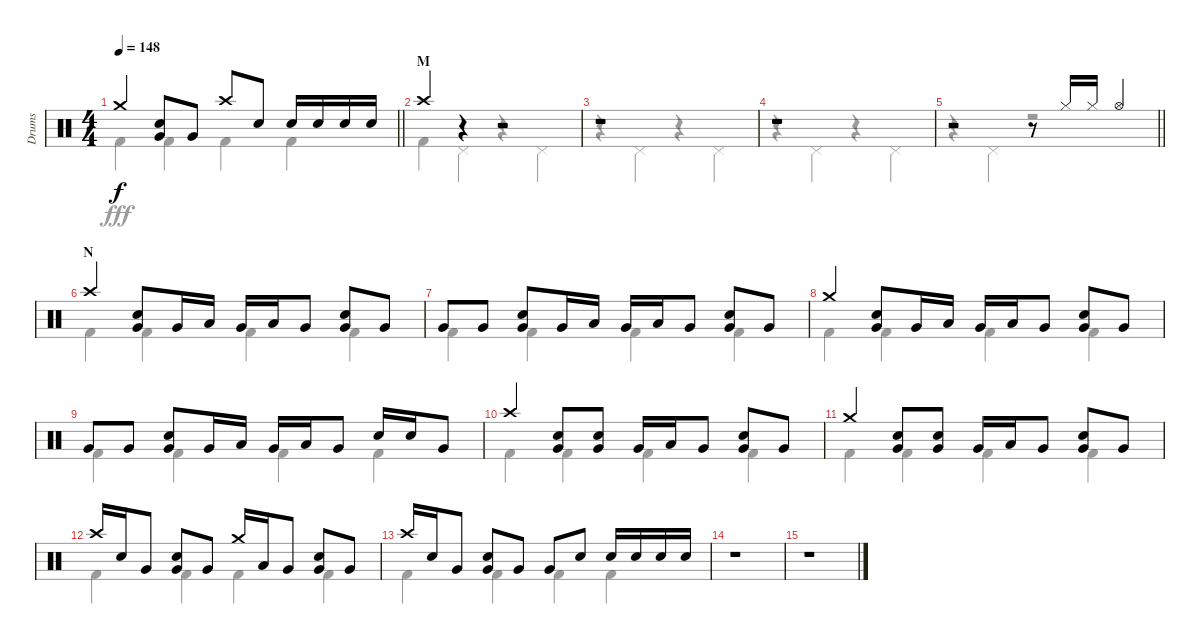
\track ("Drums" "Drums") {instrument percussion}
\staff {score}
\articulation defaults
\voice
\ts (4 4)
\tempo 148
\clef neutral
\barLineRight lightlight
\ks c "Crash medium (hit)".4{dy f}
("Snare (hit) 2" "Very Low Tom (hit)").8 "Very Low Tom (hit)".8 "Crash high (hit)".8 "Snare (hit) 2".8 "Snare (hit) 2".16 "Snare (hit) 2".16 "Snare (hit) 2".16 "Snare (hit) 2".16 |
\section ("" "M")
"Crash high (hit)".4 r.4 r.2 |
r.1 |
r.1 |
\barLineRight lightlight
r.2 r.8 "Hi-Hat (closed)".16 "Hi-Hat (closed)".16 "Hi-Hat (open)".4 |
\section ("" "N")
"Crash high (hit)".4 ("Snare (hit) 2" "Very Low Tom (hit)").8 "Very Low Tom (hit)".16 "Low Tom (hit)".16 "Very Low Tom (hit)".16 "Low Tom (hit)".16 "Very Low Tom (hit)".8 ("Snare (hit) 2" "Very Low Tom (hit)").8 "Very Low Tom (hit)".8 |
"Very Low Tom (hit)".8 "Very Low Tom (hit)".8 ("Snare (hit) 2" "Very Low Tom (hit)").8 "Very Low Tom (hit)".16 "Low Tom (hit)".16 "Very Low Tom (hit)".16 "Low Tom (hit)".16 "Very Low Tom (hit)".8 ("Snare (hit) 2" "Very Low Tom (hit)").8 "Very Low Tom (hit)".8 |
"Crash medium (hit)".4 ("Snare (hit) 2" "Very Low Tom (hit)").8 "Very Low Tom (hit)".16 "Low Tom (hit)".16 "Very Low Tom (hit)".16 "Low Tom (hit)".16 "Very Low Tom (hit)".8 ("Snare (hit) 2" "Very Low Tom (hit)").8 "Very Low Tom (hit)".8 |
"Very Low Tom (hit)".8 "Very Low Tom (hit)".8 ("Snare (hit) 2" "Very Low Tom (hit)").8 "Very Low Tom (hit)".16 "Low Tom (hit)".16 "Very Low Tom (hit)".16 "Low Tom (hit)".16 "Very Low Tom (hit)".8 "Snare (hit) 2".16 "Snare (hit) 2".16 "Very Low Tom (hit)".8 |
"Crash high (hit)".4 ("Snare (hit) 2" "Very Low Tom (hit)").8 ("Snare (hit) 2" "Very Low Tom (hit)").8 "Very Low Tom (hit)".16 "Low Tom (hit)".16 "Very Low Tom (hit)".8 ("Snare (hit) 2" "Very Low Tom (hit)").8 "Very Low Tom (hit)".8 |
"Crash medium (hit)".4 ("Snare (hit) 2" "Very Low Tom (hit)").8 ("Snare (hit) 2" "Very Low Tom (hit)").8 "Very Low Tom (hit)".16 "Low Tom (hit)".16 "Very Low Tom (hit)".8 ("Snare (hit) 2" "Very Low Tom (hit)").8 "Very Low Tom (hit)".8 |
"Crash high (hit)".16 "Snare (hit) 2".16 "Very Low Tom (hit)".8 ("Snare (hit) 2" "Very Low Tom (hit)").8 "Very Low Tom (hit)".8 "Crash medium (hit)".16 "Low Tom (hit)".16 "Very Low Tom (hit)".8 ("Snare (hit) 2" "Very Low Tom (hit)").8 "Very Low Tom (hit)".8 |
"Crash high (hit)".16 "Snare (hit) 2".16 "Very Low Tom (hit)".8 ("Snare (hit)" "Very Low Tom (hit)").8 "Very Low Tom (hit)".8 "Very Low Tom (hit)".8 "Snare (hit) 2".8 "Snare (hit) 2".16 "Snare (hit) 2".16 "Snare (hit) 2".16 "Snare (hit) 2".16 |
r.1 |
r.1
\voice
\clef neutral
\ottava regular
\simile none
\barLineRight lightlight
\ks c "Kick (hit) 2".4{dy fff} "Kick (hit) 2".4 "Kick (hit) 2".4 "Kick (hit) 2".4
|
"Kick (hit) 2".4 "Pedal Hi-Hat (hit)".4 r.4 "Pedal Hi-Hat (hit)".4 |
r.4 "Pedal Hi-Hat (hit)".4 r.4 "Pedal Hi-Hat (hit)".4 |
r.4 "Pedal Hi-Hat (hit)".4 r.4 "Pedal Hi-Hat (hit)".4 |
\barLineRight lightlight
r.4 "Pedal Hi-Hat (hit)".4 r.2 |
"Kick (hit) 2".4 "Kick (hit) 2".4 "Kick (hit) 2".4 "Kick (hit) 2".4 |
"Kick (hit) 2".4 "Kick (hit) 2".4 "Kick (hit) 2".4 "Kick (hit) 2".4 |
"Kick (hit) 2".4 "Kick (hit) 2".4 "Kick (hit) 2".4 "Kick (hit) 2".4 |
"Kick (hit) 2".4 "Kick (hit) 2".4 "Kick (hit) 2".4 "Kick (hit) 2".4 |
"Kick (hit) 2".4 "Kick (hit) 2".4 "Kick (hit) 2".4 "Kick (hit) 2".4 |
"Kick (hit) 2".4 "Kick (hit) 2".4 "Kick (hit) 2".4 "Kick (hit) 2".4 |
"Kick (hit) 2".4 "Kick (hit) 2".4 "Kick (hit) 2".4 "Kick (hit) 2".4 |
"Kick (hit) 2".4 "Kick (hit) 2".4 "Kick (hit) 2".4 "Kick (hit) 2".4 |
r.1 |
r.1
